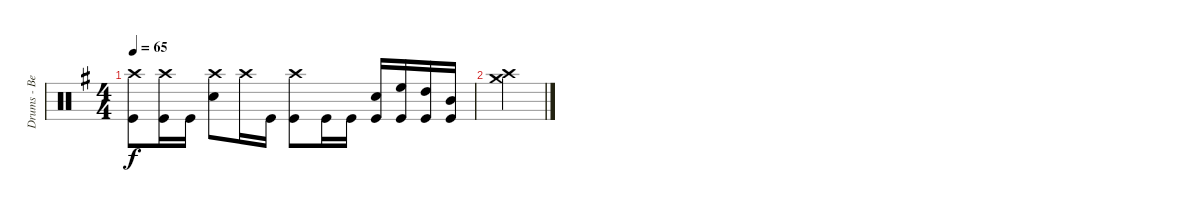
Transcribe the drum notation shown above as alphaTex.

\track ("Drums - Ben Johnston" "Drums - Be") {instrument percussion}
\staff {score}
\articulation defaults
\ts (4 4)
\tempo 65
\clef neutral
\ks g
("Crash high (hit)" "Kick (hit)").8{dy f} ("Crash high (hit)" "Kick (hit)").16 "Kick (hit)".16 ("Crash high (hit)" "Snare (hit) 2").8 "Crash high (hit)".16 "Kick (hit)".16 ("Crash high (hit)" "Kick (hit)").8 "Kick (hit)".16 "Kick (hit)".16 ("Snare (hit) 2" "Kick (hit)").16 ("High Floor Tom (hit)" "Kick (hit)").16 ("High Tom (hit)" "Kick (hit)").16 ("Mid Tom (hit)" "Kick (hit)").16 |
("Crash high (hit)" "Crash medium (hit)").4
